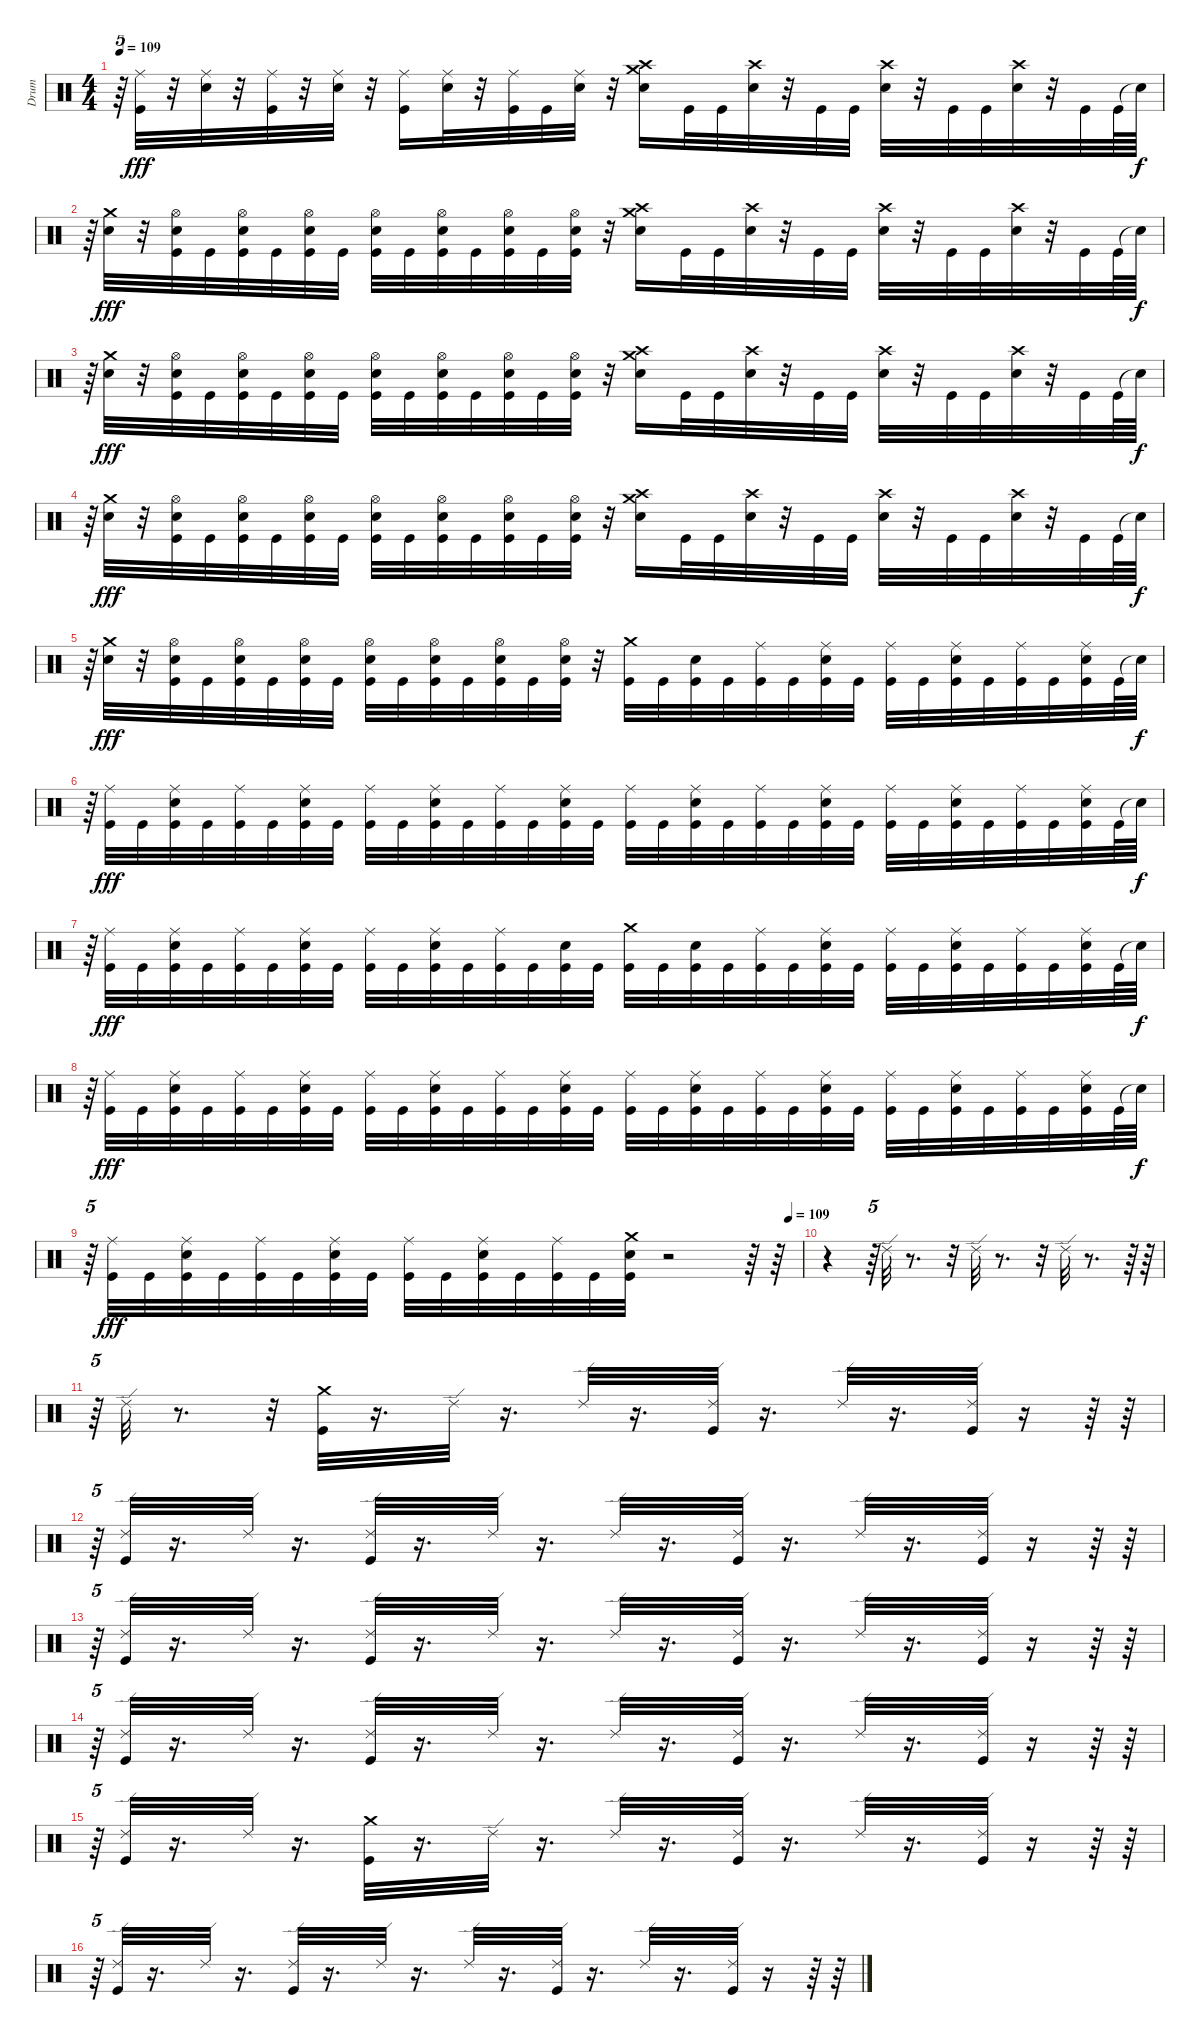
\track ("Drum" "Drum") {instrument percussion}
\staff {score}
\articulation defaults
\ts (4 4)
\tempo 109
\clef neutral
\ks c
r.64{tu (5 4) dy fff} ("Kick (hit)" "Ride (middle)").32 r.32 ("Ride (middle)" "Snare (hit) 2").32 r.32 ("Ride (middle)" "Kick (hit)").32 r.32 ("Ride (middle)" "Snare (hit) 2").32 r.32 ("Kick (hit)" "Ride (middle)").16 ("Ride (middle)" "Snare (hit) 2").32 r.32 ("Kick (hit)" "Ride (middle)").32 "Kick (hit)".32 ("Ride (middle)" "Snare (hit) 2").32 r.32 ("Crash medium (hit)" "Snare (hit) 2" "Crash high (hit)").16 "Kick (hit)".32 "Kick (hit)".32 ("Snare (hit) 2" "Crash high (hit)").32 r.32 "Kick (hit)".32 "Kick (hit)".32 ("Snare (hit) 2" "Crash high (hit)").32 r.32 "Kick (hit)".32 "Kick (hit)".32 ("Snare (hit) 2" "Crash high (hit)").32 r.32 "Kick (hit)".32 "Kick (hit)".64 "Snare (hit)"{t}.64{dy f} |
r.64{tu (5 4)} ("Crash medium (hit)" "Snare (hit) 2").32{dy fff} r.32 ("Kick (hit)" "Snare (hit) 2" "Hi-Hat (open)").32 "Kick (hit)".32 ("Kick (hit)" "Snare (hit) 2" "Hi-Hat (open)").32 "Kick (hit)".32 ("Kick (hit)" "Snare (hit) 2" "Hi-Hat (open)").32 "Kick (hit)".32 ("Kick (hit)" "Snare (hit) 2" "Hi-Hat (open)").32 "Kick (hit)".32 ("Kick (hit)" "Snare (hit) 2" "Hi-Hat (open)").32 "Kick (hit)".32 ("Kick (hit)" "Snare (hit) 2" "Hi-Hat (open)").32 "Kick (hit)".32 ("Kick (hit)" "Snare (hit) 2" "Hi-Hat (open)").32 r.32 ("Crash medium (hit)" "Snare (hit) 2" "Crash high (hit)").16 "Kick (hit)".32 "Kick (hit)".32 ("Snare (hit) 2" "Crash high (hit)").32 r.32 "Kick (hit)".32 "Kick (hit)".32 ("Crash high (hit)" "Snare (hit) 2").32 r.32 "Kick (hit)".32 "Kick (hit)".32 ("Crash high (hit)" "Snare (hit) 2").32 r.32 "Kick (hit)".32 "Kick (hit)".64 "Snare (hit)"{t}.64{dy f} |
r.64{tu (5 4)} ("Crash medium (hit)" "Snare (hit) 2").32{dy fff} r.32 ("Kick (hit)" "Snare (hit) 2" "Hi-Hat (open)").32 "Kick (hit)".32 ("Kick (hit)" "Snare (hit) 2" "Hi-Hat (open)").32 "Kick (hit)".32 ("Kick (hit)" "Snare (hit) 2" "Hi-Hat (open)").32 "Kick (hit)".32 ("Kick (hit)" "Snare (hit) 2" "Hi-Hat (open)").32 "Kick (hit)".32 ("Kick (hit)" "Snare (hit) 2" "Hi-Hat (open)").32 "Kick (hit)".32 ("Kick (hit)" "Snare (hit) 2" "Hi-Hat (open)").32 "Kick (hit)".32 ("Kick (hit)" "Snare (hit) 2" "Hi-Hat (open)").32 r.32 ("Crash medium (hit)" "Snare (hit) 2" "Crash high (hit)").16 "Kick (hit)".32 "Kick (hit)".32 ("Snare (hit) 2" "Crash high (hit)").32 r.32 "Kick (hit)".32 "Kick (hit)".32 ("Crash high (hit)" "Snare (hit) 2").32 r.32 "Kick (hit)".32 "Kick (hit)".32 ("Snare (hit) 2" "Crash high (hit)").32 r.32 "Kick (hit)".32 "Kick (hit)".64 "Snare (hit)"{t}.64{dy f} |
r.64{tu (5 4)} ("Crash medium (hit)" "Snare (hit) 2").32{dy fff} r.32 ("Kick (hit)" "Snare (hit) 2" "Hi-Hat (open)").32 "Kick (hit)".32 ("Kick (hit)" "Snare (hit) 2" "Hi-Hat (open)").32 "Kick (hit)".32 ("Kick (hit)" "Snare (hit) 2" "Hi-Hat (open)").32 "Kick (hit)".32 ("Kick (hit)" "Snare (hit) 2" "Hi-Hat (open)").32 "Kick (hit)".32 ("Kick (hit)" "Snare (hit) 2" "Hi-Hat (open)").32 "Kick (hit)".32 ("Kick (hit)" "Snare (hit) 2" "Hi-Hat (open)").32 "Kick (hit)".32 ("Kick (hit)" "Snare (hit) 2" "Hi-Hat (open)").32 r.32 ("Crash medium (hit)" "Snare (hit) 2" "Crash high (hit)").16 "Kick (hit)".32 "Kick (hit)".32 ("Snare (hit) 2" "Crash high (hit)").32 r.32 "Kick (hit)".32 "Kick (hit)".32 ("Crash high (hit)" "Snare (hit) 2").32 r.32 "Kick (hit)".32 "Kick (hit)".32 ("Crash high (hit)" "Snare (hit) 2").32 r.32 "Kick (hit)".32 "Kick (hit)".64 "Snare (hit)"{t}.64{dy f} |
r.64{tu (5 4)} ("Crash medium (hit)" "Snare (hit) 2").32{dy fff} r.32 ("Kick (hit)" "Snare (hit) 2" "Hi-Hat (open)").32 "Kick (hit)".32 ("Kick (hit)" "Snare (hit) 2" "Hi-Hat (open)").32 "Kick (hit)".32 ("Kick (hit)" "Snare (hit) 2" "Hi-Hat (open)").32 "Kick (hit)".32 ("Kick (hit)" "Snare (hit) 2" "Hi-Hat (open)").32 "Kick (hit)".32 ("Kick (hit)" "Snare (hit) 2" "Hi-Hat (open)").32 "Kick (hit)".32 ("Kick (hit)" "Snare (hit) 2" "Hi-Hat (open)").32 "Kick (hit)".32 ("Kick (hit)" "Snare (hit) 2" "Hi-Hat (open)").32 r.32 ("Crash medium (hit)" "Kick (hit)").32 "Kick (hit)".32 ("Kick (hit)" "Snare (hit) 2").32 "Kick (hit)".32 ("Kick (hit)" "Ride (middle)").32 "Kick (hit)".32 ("Ride (middle)" "Kick (hit)" "Snare (hit) 2").32 "Kick (hit)".32 ("Kick (hit)" "Ride (middle)").32 "Kick (hit)".32 ("Ride (middle)" "Kick (hit)" "Snare (hit) 2").32 "Kick (hit)".32 ("Kick (hit)" "Ride (middle)").32 "Kick (hit)".32 ("Kick (hit)" "Ride (middle)" "Snare (hit) 2").32 "Kick (hit)".64 "Snare (hit)"{t}.64{dy f} |
r.64{tu (5 4)} ("Ride (middle)" "Kick (hit)").32{dy fff} "Kick (hit)".32 ("Kick (hit)" "Ride (middle)" "Snare (hit) 2").32 "Kick (hit)".32 ("Ride (middle)" "Kick (hit)").32 "Kick (hit)".32 ("Ride (middle)" "Kick (hit)" "Snare (hit) 2").32 "Kick (hit)".32 ("Kick (hit)" "Ride (middle)").32 "Kick (hit)".32 ("Kick (hit)" "Ride (middle)" "Snare (hit) 2").32 "Kick (hit)".32 ("Ride (middle)" "Kick (hit)").32 "Kick (hit)".32 ("Kick (hit)" "Ride (middle)" "Snare (hit) 2").32 "Kick (hit)".32 ("Kick (hit)" "Ride (middle)").32 "Kick (hit)".32 ("Ride (middle)" "Kick (hit)" "Snare (hit) 2").32 "Kick (hit)".32 ("Kick (hit)" "Ride (middle)").32 "Kick (hit)".32 ("Ride (middle)" "Kick (hit)" "Snare (hit) 2").32 "Kick (hit)".32 ("Kick (hit)" "Ride (middle)").32 "Kick (hit)".32 ("Ride (middle)" "Kick (hit)" "Snare (hit) 2").32 "Kick (hit)".32 ("Kick (hit)" "Ride (middle)").32 "Kick (hit)".32 ("Kick (hit)" "Ride (middle)" "Snare (hit) 2").32 "Kick (hit)".64 "Snare (hit)"{t}.64{dy f} |
r.64{tu (5 4)} ("Ride (middle)" "Kick (hit)").32{dy fff} "Kick (hit)".32 ("Kick (hit)" "Ride (middle)" "Snare (hit) 2").32 "Kick (hit)".32 ("Ride (middle)" "Kick (hit)").32 "Kick (hit)".32 ("Kick (hit)" "Ride (middle)" "Snare (hit) 2").32 "Kick (hit)".32 ("Kick (hit)" "Ride (middle)").32 "Kick (hit)".32 ("Ride (middle)" "Kick (hit)" "Snare (hit) 2").32 "Kick (hit)".32 ("Kick (hit)" "Ride (middle)").32 "Kick (hit)".32 ("Kick (hit)" "Snare (hit) 2").32 "Kick (hit)".32 ("Kick (hit)" "Crash medium (hit)").32 "Kick (hit)".32 ("Kick (hit)" "Snare (hit) 2").32 "Kick (hit)".32 ("Kick (hit)" "Ride (middle)").32 "Kick (hit)".32 ("Ride (middle)" "Kick (hit)" "Snare (hit) 2").32 "Kick (hit)".32 ("Kick (hit)" "Ride (middle)").32 "Kick (hit)".32 ("Ride (middle)" "Kick (hit)" "Snare (hit) 2").32 "Kick (hit)".32 ("Kick (hit)" "Ride (middle)").32 "Kick (hit)".32 ("Ride (middle)" "Kick (hit)" "Snare (hit) 2").32 "Kick (hit)".64 "Snare (hit)"{t}.64{dy f} |
r.64{tu (5 4)} ("Kick (hit)" "Ride (middle)").32{dy fff} "Kick (hit)".32 ("Ride (middle)" "Kick (hit)" "Snare (hit) 2").32 "Kick (hit)".32 ("Ride (middle)" "Kick (hit)").32 "Kick (hit)".32 ("Ride (middle)" "Kick (hit)" "Snare (hit) 2").32 "Kick (hit)".32 ("Kick (hit)" "Ride (middle)").32 "Kick (hit)".32 ("Kick (hit)" "Ride (middle)" "Snare (hit) 2").32 "Kick (hit)".32 ("Ride (middle)" "Kick (hit)").32 "Kick (hit)".32 ("Kick (hit)" "Ride (middle)" "Snare (hit) 2").32 "Kick (hit)".32 ("Kick (hit)" "Ride (middle)").32 "Kick (hit)".32 ("Kick (hit)" "Ride (middle)" "Snare (hit) 2").32 "Kick (hit)".32 ("Ride (middle)" "Kick (hit)").32 "Kick (hit)".32 ("Ride (middle)" "Kick (hit)" "Snare (hit) 2").32 "Kick (hit)".32 ("Ride (middle)" "Kick (hit)").32 "Kick (hit)".32 ("Ride (middle)" "Kick (hit)" "Snare (hit) 2").32 "Kick (hit)".32 ("Ride (middle)" "Kick (hit)").32 "Kick (hit)".32 ("Kick (hit)" "Ride (middle)" "Snare (hit) 2").32 "Kick (hit)".64 "Snare (hit)"{t}.64{dy f} |
\tempo (109 0.98125)
r.64{tu (5 4)} ("Ride (middle)" "Kick (hit)").32{dy fff} "Kick (hit)".32 ("Ride (middle)" "Kick (hit)" "Snare (hit) 2").32 "Kick (hit)".32 ("Ride (middle)" "Kick (hit)").32 "Kick (hit)".32 ("Ride (middle)" "Kick (hit)" "Snare (hit) 2").32 "Kick (hit)".32 ("Kick (hit)" "Ride (middle)").32 "Kick (hit)".32 ("Ride (middle)" "Kick (hit)" "Snare (hit) 2").32 "Kick (hit)".32 ("Ride (middle)" "Kick (hit)").32 "Kick (hit)".32 ("Kick (hit)" "Crash medium (hit)" "Snare (hit) 2").32 r.2 r.64 r.64 |
r.4 r.64{tu (5 4)} "Ride (edge) 2".32 r.8{d} r.32 "Ride (edge) 2".32 r.8{d} r.32 "Ride (edge) 2".32 r.8{d} r.64 r.64 |
r.64{tu (5 4)} "Ride (edge) 2".32 r.8{d} r.32 ("Kick (hit)" "Crash medium (hit)").32 r.16{d} "Ride (edge) 2".32 r.16{d} "Ride (edge) 2".32 r.16{d} ("Ride (edge) 2" "Kick (hit)").32 r.16{d} "Ride (edge) 2".32 r.16{d} ("Ride (edge) 2" "Kick (hit)").32 r.16 r.64 r.64 |
r.64{tu (5 4)} ("Ride (edge) 2" "Kick (hit)").32 r.16{d} "Ride (edge) 2".32 r.16{d} ("Ride (edge) 2" "Kick (hit)").32 r.16{d} "Ride (edge) 2".32 r.16{d} "Ride (edge) 2".32 r.16{d} ("Kick (hit)" "Ride (edge) 2").32 r.16{d} "Ride (edge) 2".32 r.16{d} ("Kick (hit)" "Ride (edge) 2").32 r.16 r.64 r.64 |
r.64{tu (5 4)} ("Kick (hit)" "Ride (edge) 2").32 r.16{d} "Ride (edge) 2".32 r.16{d} ("Kick (hit)" "Ride (edge) 2").32 r.16{d} "Ride (edge) 2".32 r.16{d} "Ride (edge) 2".32 r.16{d} ("Ride (edge) 2" "Kick (hit)").32 r.16{d} "Ride (edge) 2".32 r.16{d} ("Ride (edge) 2" "Kick (hit)").32 r.16 r.64 r.64 |
r.64{tu (5 4)} ("Kick (hit)" "Ride (edge) 2").32 r.16{d} "Ride (edge) 2".32 r.16{d} ("Kick (hit)" "Ride (edge) 2").32 r.16{d} "Ride (edge) 2".32 r.16{d} "Ride (edge) 2".32 r.16{d} ("Ride (edge) 2" "Kick (hit)").32 r.16{d} "Ride (edge) 2".32 r.16{d} ("Kick (hit)" "Ride (edge) 2").32 r.16 r.64 r.64 |
r.64{tu (5 4)} ("Kick (hit)" "Ride (edge) 2").32 r.16{d} "Ride (edge) 2".32 r.16{d} ("Crash medium (hit)" "Kick (hit)").32 r.16{d} "Ride (edge) 2".32 r.16{d} "Ride (edge) 2".32 r.16{d} ("Ride (edge) 2" "Kick (hit)").32 r.16{d} "Ride (edge) 2".32 r.16{d} ("Kick (hit)" "Ride (edge) 2").32 r.16 r.64 r.64 |
r.64{tu (5 4)} ("Kick (hit)" "Ride (edge) 2").32 r.16{d} "Ride (edge) 2".32 r.16{d} ("Kick (hit)" "Ride (edge) 2").32 r.16{d} "Ride (edge) 2".32 r.16{d} "Ride (edge) 2".32 r.16{d} ("Ride (edge) 2" "Kick (hit)").32 r.16{d} "Ride (edge) 2".32 r.16{d} ("Kick (hit)" "Ride (edge) 2").32 r.16 r.64 r.64
